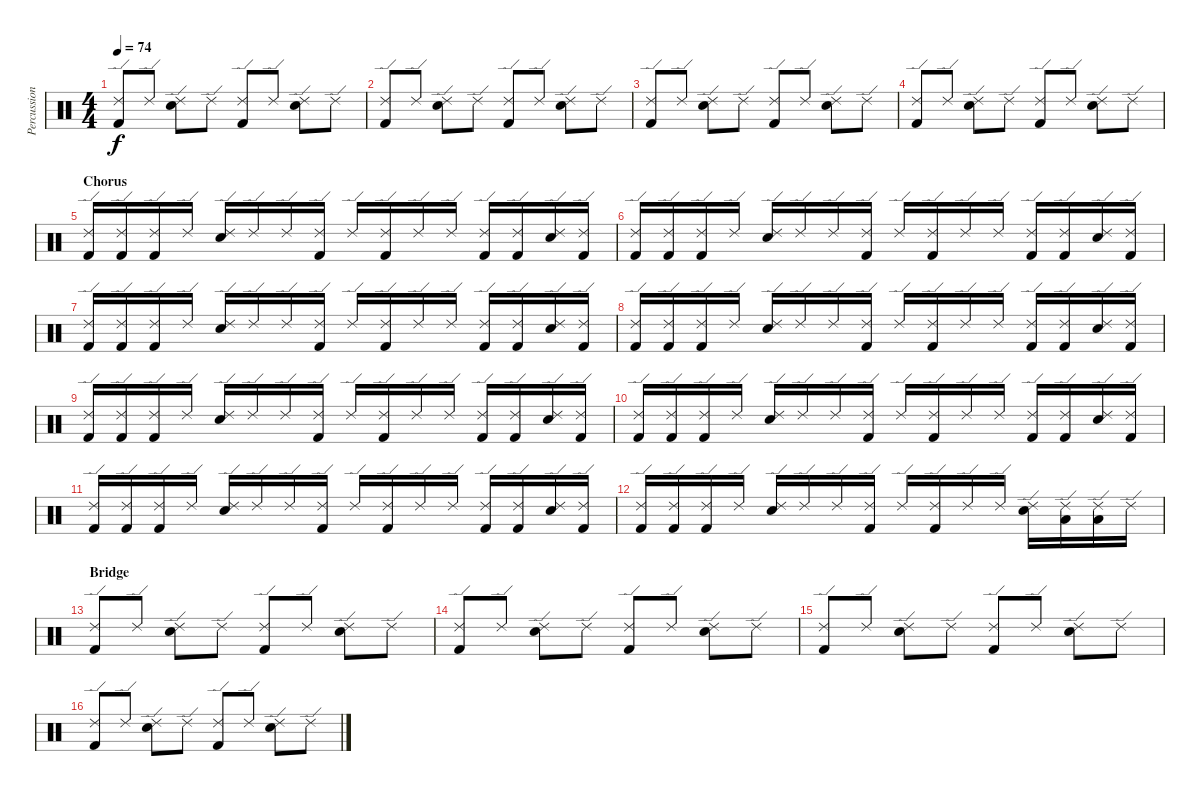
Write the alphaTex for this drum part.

\track ("Percussion" "Percussion") {instrument percussion}
\staff {score}
\articulation defaults
\ts (4 4)
\tempo 74
\clef neutral
\ks c
("Ride (edge) 2" "Kick (hit) 2").8{dy f} "Ride (edge) 2".8 ("Ride (edge) 2" "Electric Snare (hit)").8 "Ride (edge) 2".8 ("Ride (edge) 2" "Kick (hit) 2").8 "Ride (edge) 2".8 ("Ride (edge) 2" "Electric Snare (hit)").8 "Ride (edge) 2".8 |
("Ride (edge) 2" "Kick (hit) 2").8 "Ride (edge) 2".8 ("Ride (edge) 2" "Electric Snare (hit)").8 "Ride (edge) 2".8 ("Ride (edge) 2" "Kick (hit) 2").8 "Ride (edge) 2".8 ("Ride (edge) 2" "Electric Snare (hit)").8 "Ride (edge) 2".8 |
("Ride (edge) 2" "Kick (hit) 2").8 "Ride (edge) 2".8 ("Ride (edge) 2" "Electric Snare (hit)").8 "Ride (edge) 2".8 ("Ride (edge) 2" "Kick (hit) 2").8 "Ride (edge) 2".8 ("Ride (edge) 2" "Electric Snare (hit)").8 "Ride (edge) 2".8 |
("Ride (edge) 2" "Kick (hit) 2").8 "Ride (edge) 2".8 ("Ride (edge) 2" "Electric Snare (hit)").8 "Ride (edge) 2".8 ("Ride (edge) 2" "Kick (hit) 2").8 "Ride (edge) 2".8 ("Ride (edge) 2" "Electric Snare (hit)").8 "Ride (edge) 2".8 |
\section ("" "Chorus")
("Ride (edge) 2" "Kick (hit) 2").16 ("Ride (edge) 2" "Kick (hit) 2").16 ("Ride (edge) 2" "Kick (hit) 2").16 "Ride (edge) 2".16 ("Ride (edge) 2" "Electric Snare (hit)").16 "Ride (edge) 2".16 "Ride (edge) 2".16 ("Ride (edge) 2" "Kick (hit) 2").16 "Ride (edge) 2".16 ("Ride (edge) 2" "Kick (hit) 2").16 "Ride (edge) 2".16 "Ride (edge) 2".16 ("Ride (edge) 2" "Kick (hit) 2").16 ("Ride (edge) 2" "Kick (hit) 2").16 ("Ride (edge) 2" "Electric Snare (hit)").16 ("Ride (edge) 2" "Kick (hit) 2").16 |
("Ride (edge) 2" "Kick (hit) 2").16 ("Ride (edge) 2" "Kick (hit) 2").16 ("Ride (edge) 2" "Kick (hit) 2").16 "Ride (edge) 2".16 ("Ride (edge) 2" "Electric Snare (hit)").16 "Ride (edge) 2".16 "Ride (edge) 2".16 ("Ride (edge) 2" "Kick (hit) 2").16 "Ride (edge) 2".16 ("Ride (edge) 2" "Kick (hit) 2").16 "Ride (edge) 2".16 "Ride (edge) 2".16 ("Ride (edge) 2" "Kick (hit) 2").16 ("Ride (edge) 2" "Kick (hit) 2").16 ("Ride (edge) 2" "Electric Snare (hit)").16 ("Ride (edge) 2" "Kick (hit) 2").16 |
("Ride (edge) 2" "Kick (hit) 2").16 ("Ride (edge) 2" "Kick (hit) 2").16 ("Ride (edge) 2" "Kick (hit) 2").16 "Ride (edge) 2".16 ("Ride (edge) 2" "Electric Snare (hit)").16 "Ride (edge) 2".16 "Ride (edge) 2".16 ("Ride (edge) 2" "Kick (hit) 2").16 "Ride (edge) 2".16 ("Ride (edge) 2" "Kick (hit) 2").16 "Ride (edge) 2".16 "Ride (edge) 2".16 ("Ride (edge) 2" "Kick (hit) 2").16 ("Ride (edge) 2" "Kick (hit) 2").16 ("Ride (edge) 2" "Electric Snare (hit)").16 ("Ride (edge) 2" "Kick (hit) 2").16 |
("Ride (edge) 2" "Kick (hit) 2").16 ("Ride (edge) 2" "Kick (hit) 2").16 ("Ride (edge) 2" "Kick (hit) 2").16 "Ride (edge) 2".16 ("Ride (edge) 2" "Electric Snare (hit)").16 "Ride (edge) 2".16 "Ride (edge) 2".16 ("Ride (edge) 2" "Kick (hit) 2").16 "Ride (edge) 2".16 ("Ride (edge) 2" "Kick (hit) 2").16 "Ride (edge) 2".16 "Ride (edge) 2".16 ("Ride (edge) 2" "Kick (hit) 2").16 ("Ride (edge) 2" "Kick (hit) 2").16 ("Ride (edge) 2" "Electric Snare (hit)").16 ("Ride (edge) 2" "Kick (hit) 2").16 |
("Ride (edge) 2" "Kick (hit) 2").16 ("Ride (edge) 2" "Kick (hit) 2").16 ("Ride (edge) 2" "Kick (hit) 2").16 "Ride (edge) 2".16 ("Ride (edge) 2" "Electric Snare (hit)").16 "Ride (edge) 2".16 "Ride (edge) 2".16 ("Ride (edge) 2" "Kick (hit) 2").16 "Ride (edge) 2".16 ("Ride (edge) 2" "Kick (hit) 2").16 "Ride (edge) 2".16 "Ride (edge) 2".16 ("Ride (edge) 2" "Kick (hit) 2").16 ("Ride (edge) 2" "Kick (hit) 2").16 ("Ride (edge) 2" "Electric Snare (hit)").16 ("Ride (edge) 2" "Kick (hit) 2").16 |
("Ride (edge) 2" "Kick (hit) 2").16 ("Ride (edge) 2" "Kick (hit) 2").16 ("Ride (edge) 2" "Kick (hit) 2").16 "Ride (edge) 2".16 ("Ride (edge) 2" "Electric Snare (hit)").16 "Ride (edge) 2".16 "Ride (edge) 2".16 ("Ride (edge) 2" "Kick (hit) 2").16 "Ride (edge) 2".16 ("Ride (edge) 2" "Kick (hit) 2").16 "Ride (edge) 2".16 "Ride (edge) 2".16 ("Ride (edge) 2" "Kick (hit) 2").16 ("Ride (edge) 2" "Kick (hit) 2").16 ("Ride (edge) 2" "Electric Snare (hit)").16 ("Ride (edge) 2" "Kick (hit) 2").16 |
("Ride (edge) 2" "Kick (hit) 2").16 ("Ride (edge) 2" "Kick (hit) 2").16 ("Ride (edge) 2" "Kick (hit) 2").16 "Ride (edge) 2".16 ("Ride (edge) 2" "Electric Snare (hit)").16 "Ride (edge) 2".16 "Ride (edge) 2".16 ("Ride (edge) 2" "Kick (hit) 2").16 "Ride (edge) 2".16 ("Ride (edge) 2" "Kick (hit) 2").16 "Ride (edge) 2".16 "Ride (edge) 2".16 ("Ride (edge) 2" "Kick (hit) 2").16 ("Ride (edge) 2" "Kick (hit) 2").16 ("Ride (edge) 2" "Electric Snare (hit)").16 ("Ride (edge) 2" "Kick (hit) 2").16 |
("Ride (edge) 2" "Kick (hit) 2").16 ("Ride (edge) 2" "Kick (hit) 2").16 ("Ride (edge) 2" "Kick (hit) 2").16 "Ride (edge) 2".16 ("Ride (edge) 2" "Electric Snare (hit)").16 "Ride (edge) 2".16 "Ride (edge) 2".16 ("Ride (edge) 2" "Kick (hit) 2").16 "Ride (edge) 2".16 ("Ride (edge) 2" "Kick (hit) 2").16 "Ride (edge) 2".16 "Ride (edge) 2".16 ("Ride (edge) 2" "Electric Snare (hit)").16 ("Ride (edge) 2" "Low Tom (hit)").16 ("Ride (edge) 2" "Low Floor Tom (hit)").16 "Ride (edge) 2".16 |
\section ("" "Bridge")
("Ride (edge) 2" "Kick (hit) 2").8 "Ride (edge) 2".8 ("Ride (edge) 2" "Electric Snare (hit)").8 "Ride (edge) 2".8 ("Ride (edge) 2" "Kick (hit) 2").8 "Ride (edge) 2".8 ("Ride (edge) 2" "Electric Snare (hit)").8 "Ride (edge) 2".8 |
("Ride (edge) 2" "Kick (hit) 2").8 "Ride (edge) 2".8 ("Ride (edge) 2" "Electric Snare (hit)").8 "Ride (edge) 2".8 ("Ride (edge) 2" "Kick (hit) 2").8 "Ride (edge) 2".8 ("Ride (edge) 2" "Electric Snare (hit)").8 "Ride (edge) 2".8 |
("Ride (edge) 2" "Kick (hit) 2").8 "Ride (edge) 2".8 ("Ride (edge) 2" "Electric Snare (hit)").8 "Ride (edge) 2".8 ("Ride (edge) 2" "Kick (hit) 2").8 "Ride (edge) 2".8 ("Ride (edge) 2" "Electric Snare (hit)").8 "Ride (edge) 2".8 |
("Ride (edge) 2" "Kick (hit) 2").8 "Ride (edge) 2".8 ("Ride (edge) 2" "Electric Snare (hit)").8 "Ride (edge) 2".8 ("Ride (edge) 2" "Kick (hit) 2").8 "Ride (edge) 2".8 ("Ride (edge) 2" "Electric Snare (hit)").8 "Ride (edge) 2".8
